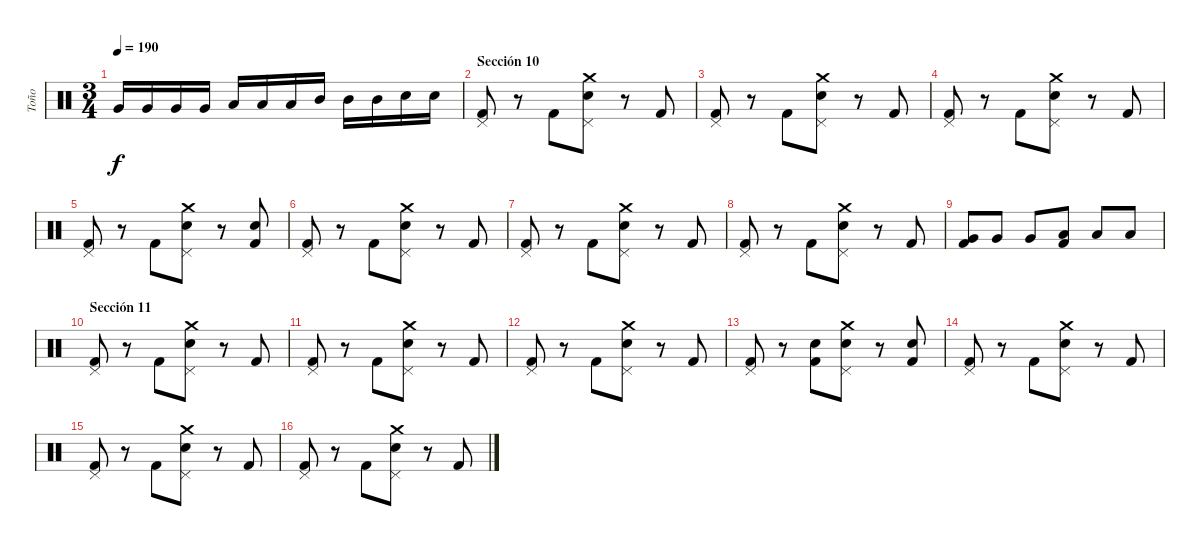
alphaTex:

\track ("Toño" "Toño") {instrument percussion}
\staff {score}
\articulation defaults
\ts (3 4)
\tempo 190
\clef neutral
\ks c "Very Low Tom (hit)".16{dy f} "Very Low Tom (hit)".16 "Very Low Tom (hit)".16 "Very Low Tom (hit)".16 "Low Tom (hit)".16 "Low Tom (hit)".16 "Low Tom (hit)".16 "Mid Tom (hit)".16 "Mid Tom (hit)".16 "Mid Tom (hit)".16 "Electric Snare (hit)".16 "Electric Snare (hit)".16
|
\section ("" "Sección 10")
("Pedal Hi-Hat (hit)" "Kick (hit) 2").8 r.8 "Kick (hit) 2".8 ("Pedal Hi-Hat (hit)" "Crash medium (hit)" "Electric Snare (hit)").8 r.8 "Kick (hit) 2".8 |
("Pedal Hi-Hat (hit)" "Kick (hit) 2").8 r.8 "Kick (hit) 2".8 ("Pedal Hi-Hat (hit)" "Crash medium (hit)" "Electric Snare (hit)").8 r.8 "Kick (hit) 2".8 |
("Pedal Hi-Hat (hit)" "Kick (hit) 2").8 r.8 "Kick (hit) 2".8 ("Pedal Hi-Hat (hit)" "Crash medium (hit)" "Electric Snare (hit)").8 r.8 "Kick (hit) 2".8 |
("Pedal Hi-Hat (hit)" "Kick (hit) 2").8 r.8 "Kick (hit) 2".8 ("Pedal Hi-Hat (hit)" "Crash medium (hit)" "Electric Snare (hit)").8 r.8 ("Electric Snare (hit)" "Kick (hit) 2").8 |
("Pedal Hi-Hat (hit)" "Kick (hit) 2").8 r.8 "Kick (hit) 2".8 ("Pedal Hi-Hat (hit)" "Crash medium (hit)" "Electric Snare (hit)").8 r.8 "Kick (hit) 2".8 |
("Pedal Hi-Hat (hit)" "Kick (hit) 2").8 r.8 "Kick (hit) 2".8 ("Pedal Hi-Hat (hit)" "Crash medium (hit)" "Electric Snare (hit)").8 r.8 "Kick (hit) 2".8 |
("Pedal Hi-Hat (hit)" "Kick (hit) 2").8 r.8 "Kick (hit) 2".8 ("Pedal Hi-Hat (hit)" "Crash medium (hit)" "Electric Snare (hit)").8 r.8 "Kick (hit) 2".8 |
("Very Low Tom (hit)" "Kick (hit) 2").8 "Very Low Tom (hit)".8 "Very Low Tom (hit)".8 ("Low Tom (hit)" "Kick (hit) 2").8 "Low Tom (hit)".8 "Low Tom (hit)".8 |
\section ("" "Sección 11")
("Pedal Hi-Hat (hit)" "Kick (hit) 2").8 r.8 "Kick (hit) 2".8 ("Pedal Hi-Hat (hit)" "Crash medium (hit)" "Electric Snare (hit)").8 r.8 "Kick (hit) 2".8 |
("Pedal Hi-Hat (hit)" "Kick (hit) 2").8 r.8 "Kick (hit) 2".8 ("Pedal Hi-Hat (hit)" "Crash medium (hit)" "Electric Snare (hit)").8 r.8 "Kick (hit) 2".8 |
("Pedal Hi-Hat (hit)" "Kick (hit) 2").8 r.8 "Kick (hit) 2".8 ("Pedal Hi-Hat (hit)" "Crash medium (hit)" "Electric Snare (hit)").8 r.8 "Kick (hit) 2".8 |
("Pedal Hi-Hat (hit)" "Kick (hit) 2").8 r.8 ("Electric Snare (hit)" "Kick (hit) 2").8 ("Pedal Hi-Hat (hit)" "Crash medium (hit)" "Electric Snare (hit)").8 r.8 ("Electric Snare (hit)" "Kick (hit) 2").8 |
("Pedal Hi-Hat (hit)" "Kick (hit) 2").8 r.8 "Kick (hit) 2".8 ("Pedal Hi-Hat (hit)" "Crash medium (hit)" "Electric Snare (hit)").8 r.8 "Kick (hit) 2".8 |
("Pedal Hi-Hat (hit)" "Kick (hit) 2").8 r.8 "Kick (hit) 2".8 ("Pedal Hi-Hat (hit)" "Crash medium (hit)" "Electric Snare (hit)").8 r.8 "Kick (hit) 2".8 |
("Pedal Hi-Hat (hit)" "Kick (hit) 2").8 r.8 "Kick (hit) 2".8 ("Pedal Hi-Hat (hit)" "Crash medium (hit)" "Electric Snare (hit)").8 r.8 "Kick (hit) 2".8
